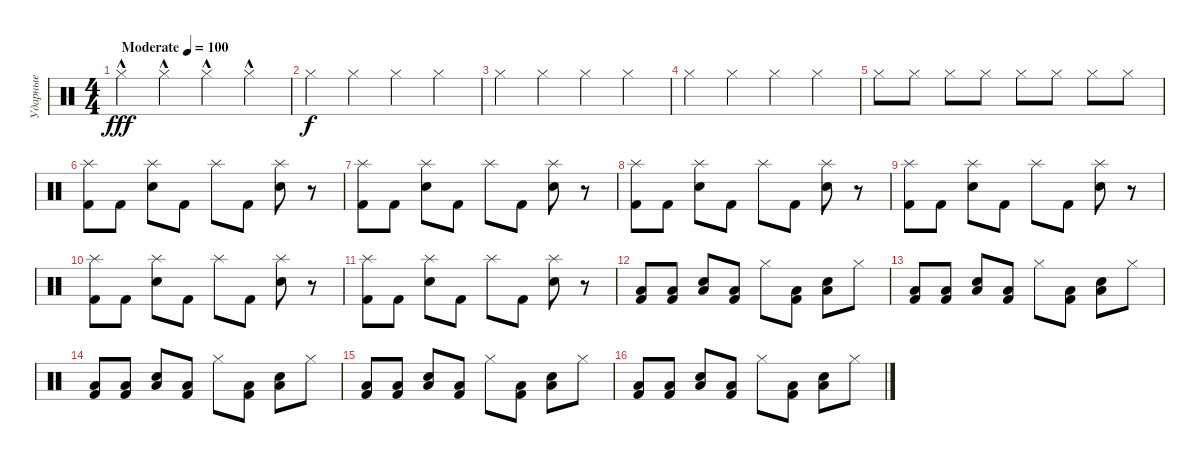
\track ("Ударные" "Ударные") {instrument percussion}
\staff {score}
\articulation defaults
\ts (4 4)
\tempo (100 "Moderate")
\clef neutral
\ks c "Hi-Hat (closed)"{hac}.4{dy fff} "Hi-Hat (closed)"{hac}.4 "Hi-Hat (closed)"{hac}.4 "Hi-Hat (closed)"{hac}.4
|
"Hi-Hat (closed)".4{dy f} "Hi-Hat (closed)".4 "Hi-Hat (closed)".4 "Hi-Hat (closed)".4 |
"Hi-Hat (closed)".4 "Hi-Hat (closed)".4 "Hi-Hat (closed)".4 "Hi-Hat (closed)".4 |
"Hi-Hat (closed)".4 "Hi-Hat (closed)".4 "Hi-Hat (closed)".4 "Hi-Hat (closed)".4 |
"Hi-Hat (closed)".8 "Hi-Hat (closed)".8 "Hi-Hat (closed)".8 "Hi-Hat (closed)".8 "Hi-Hat (closed)".8 "Hi-Hat (closed)".8 "Hi-Hat (closed)".8 "Hi-Hat (closed)".8 |
("Kick (hit) 2" "Splash (hit)").8 "Kick (hit) 2".8 ("Snare (hit) 2" "Splash (hit)").8 "Kick (hit) 2".8 "Splash (hit)".8 "Kick (hit) 2".8 ("Snare (hit) 2" "Splash (hit)").8 r.8 |
("Kick (hit) 2" "Splash (hit)").8 "Kick (hit) 2".8 ("Snare (hit) 2" "Splash (hit)").8 "Kick (hit) 2".8 "Splash (hit)".8 "Kick (hit) 2".8 ("Snare (hit) 2" "Splash (hit)").8 r.8 |
("Kick (hit) 2" "Splash (hit)").8 "Kick (hit) 2".8 ("Snare (hit) 2" "Splash (hit)").8 "Kick (hit) 2".8 "Splash (hit)".8 "Kick (hit) 2".8 ("Snare (hit) 2" "Splash (hit)").8 r.8 |
("Kick (hit) 2" "Splash (hit)").8 "Kick (hit) 2".8 ("Snare (hit) 2" "Splash (hit)").8 "Kick (hit) 2".8 "Splash (hit)".8 "Kick (hit) 2".8 ("Snare (hit) 2" "Splash (hit)").8 r.8 |
("Kick (hit) 2" "Splash (hit)").8 "Kick (hit) 2".8 ("Snare (hit) 2" "Splash (hit)").8 "Kick (hit) 2".8 "Splash (hit)".8 "Kick (hit) 2".8 ("Snare (hit) 2" "Splash (hit)").8 r.8 |
("Kick (hit) 2" "Splash (hit)").8 "Kick (hit) 2".8 ("Snare (hit) 2" "Splash (hit)").8 "Kick (hit) 2".8 "Splash (hit)".8 "Kick (hit) 2".8 ("Snare (hit) 2" "Splash (hit)").8 r.8 |
("Kick (hit) 2" "Low Floor Tom (hit)").8 ("Kick (hit) 2" "Low Floor Tom (hit)").8 ("Snare (hit) 2" "Low Floor Tom (hit)").8 ("Kick (hit) 2" "Low Floor Tom (hit)").8 "Hi-Hat (closed)".8 ("Kick (hit) 2" "Low Floor Tom (hit)").8 ("Snare (hit) 2" "Low Floor Tom (hit)").8 "Hi-Hat (closed)".8 |
("Kick (hit) 2" "Low Floor Tom (hit)").8 ("Kick (hit) 2" "Low Floor Tom (hit)").8 ("Snare (hit) 2" "Low Floor Tom (hit)").8 ("Kick (hit) 2" "Low Floor Tom (hit)").8 "Hi-Hat (closed)".8 ("Kick (hit) 2" "Low Floor Tom (hit)").8 ("Snare (hit) 2" "Low Floor Tom (hit)").8 "Hi-Hat (closed)".8 |
("Kick (hit) 2" "Low Floor Tom (hit)").8 ("Kick (hit) 2" "Low Floor Tom (hit)").8 ("Snare (hit) 2" "Low Floor Tom (hit)").8 ("Kick (hit) 2" "Low Floor Tom (hit)").8 "Hi-Hat (closed)".8 ("Kick (hit) 2" "Low Floor Tom (hit)").8 ("Snare (hit) 2" "Low Floor Tom (hit)").8 "Hi-Hat (closed)".8 |
("Kick (hit) 2" "Low Floor Tom (hit)").8 ("Kick (hit) 2" "Low Floor Tom (hit)").8 ("Snare (hit) 2" "Low Floor Tom (hit)").8 ("Kick (hit) 2" "Low Floor Tom (hit)").8 "Hi-Hat (closed)".8 ("Kick (hit) 2" "Low Floor Tom (hit)").8 ("Snare (hit) 2" "Low Floor Tom (hit)").8 "Hi-Hat (closed)".8 |
("Kick (hit) 2" "Low Floor Tom (hit)").8 ("Kick (hit) 2" "Low Floor Tom (hit)").8 ("Snare (hit) 2" "Low Floor Tom (hit)").8 ("Kick (hit) 2" "Low Floor Tom (hit)").8 "Hi-Hat (closed)".8 ("Kick (hit) 2" "Low Floor Tom (hit)").8 ("Snare (hit) 2" "Low Floor Tom (hit)").8 "Hi-Hat (closed)".8
